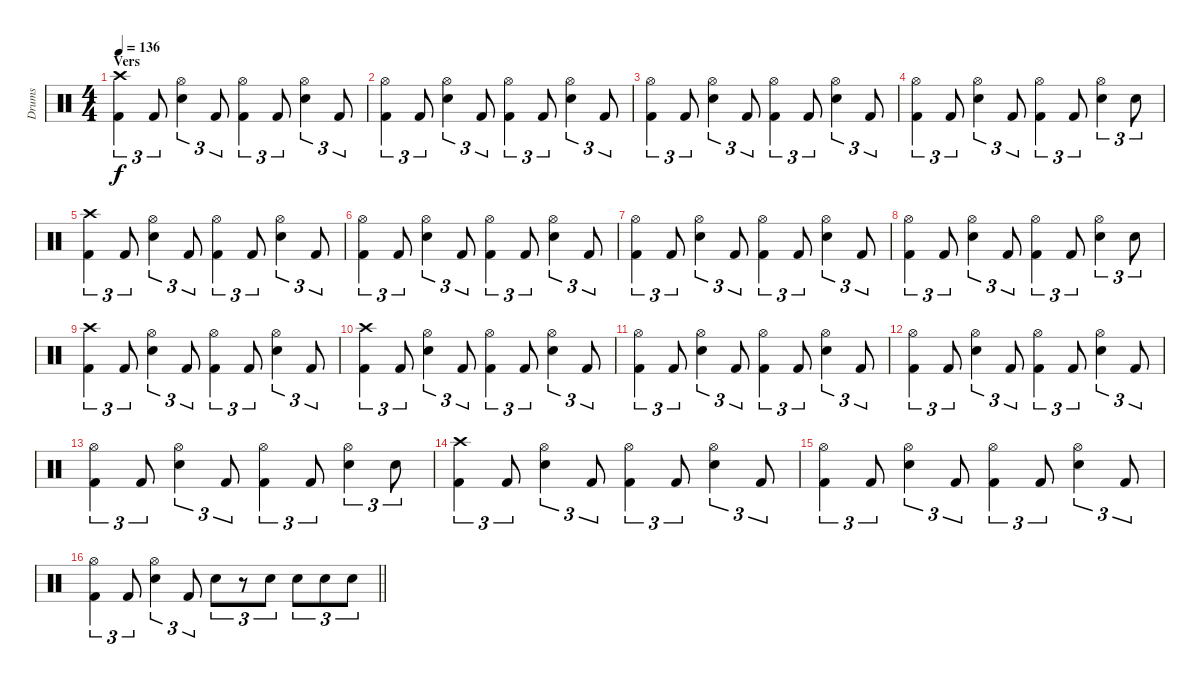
\track ("Drums" "Drums") {instrument percussion}
\staff {score}
\articulation defaults
\ts (4 4)
\section ("" "Vers")
\tempo 136
\clef neutral
\ks c
("Crash high (hit)" "Kick (hit) 2").4{tu (3 2) dy f} "Kick (hit) 2".8{tu (3 2)} ("Hi-Hat (open)" "Electric Snare (hit)").4{tu (3 2)} "Kick (hit) 2".8{tu (3 2)} ("Hi-Hat (open)" "Kick (hit) 2").4{tu (3 2)} "Kick (hit) 2".8{tu (3 2)} ("Hi-Hat (open)" "Electric Snare (hit)").4{tu (3 2)} "Kick (hit) 2".8{tu (3 2)} |
("Hi-Hat (open)" "Kick (hit) 2").4{tu (3 2)} "Kick (hit) 2".8{tu (3 2)} ("Hi-Hat (open)" "Electric Snare (hit)").4{tu (3 2)} "Kick (hit) 2".8{tu (3 2)} ("Hi-Hat (open)" "Kick (hit) 2").4{tu (3 2)} "Kick (hit) 2".8{tu (3 2)} ("Hi-Hat (open)" "Electric Snare (hit)").4{tu (3 2)} "Kick (hit) 2".8{tu (3 2)} |
("Hi-Hat (open)" "Kick (hit) 2").4{tu (3 2)} "Kick (hit) 2".8{tu (3 2)} ("Hi-Hat (open)" "Electric Snare (hit)").4{tu (3 2)} "Kick (hit) 2".8{tu (3 2)} ("Hi-Hat (open)" "Kick (hit) 2").4{tu (3 2)} "Kick (hit) 2".8{tu (3 2)} ("Hi-Hat (open)" "Electric Snare (hit)").4{tu (3 2)} "Kick (hit) 2".8{tu (3 2)} |
("Hi-Hat (open)" "Kick (hit) 2").4{tu (3 2)} "Kick (hit) 2".8{tu (3 2)} ("Hi-Hat (open)" "Electric Snare (hit)").4{tu (3 2)} "Kick (hit) 2".8{tu (3 2)} ("Hi-Hat (open)" "Kick (hit) 2").4{tu (3 2)} "Kick (hit) 2".8{tu (3 2)} ("Hi-Hat (open)" "Electric Snare (hit)").4{tu (3 2)} "Electric Snare (hit)".8{tu (3 2)} |
("Crash high (hit)" "Kick (hit) 2").4{tu (3 2)} "Kick (hit) 2".8{tu (3 2)} ("Hi-Hat (open)" "Electric Snare (hit)").4{tu (3 2)} "Kick (hit) 2".8{tu (3 2)} ("Hi-Hat (open)" "Kick (hit) 2").4{tu (3 2)} "Kick (hit) 2".8{tu (3 2)} ("Hi-Hat (open)" "Electric Snare (hit)").4{tu (3 2)} "Kick (hit) 2".8{tu (3 2)} |
("Hi-Hat (open)" "Kick (hit) 2").4{tu (3 2)} "Kick (hit) 2".8{tu (3 2)} ("Hi-Hat (open)" "Electric Snare (hit)").4{tu (3 2)} "Kick (hit) 2".8{tu (3 2)} ("Hi-Hat (open)" "Kick (hit) 2").4{tu (3 2)} "Kick (hit) 2".8{tu (3 2)} ("Hi-Hat (open)" "Electric Snare (hit)").4{tu (3 2)} "Kick (hit) 2".8{tu (3 2)} |
("Hi-Hat (open)" "Kick (hit) 2").4{tu (3 2)} "Kick (hit) 2".8{tu (3 2)} ("Hi-Hat (open)" "Electric Snare (hit)").4{tu (3 2)} "Kick (hit) 2".8{tu (3 2)} ("Hi-Hat (open)" "Kick (hit) 2").4{tu (3 2)} "Kick (hit) 2".8{tu (3 2)} ("Hi-Hat (open)" "Electric Snare (hit)").4{tu (3 2)} "Kick (hit) 2".8{tu (3 2)} |
("Hi-Hat (open)" "Kick (hit) 2").4{tu (3 2)} "Kick (hit) 2".8{tu (3 2)} ("Hi-Hat (open)" "Electric Snare (hit)").4{tu (3 2)} "Kick (hit) 2".8{tu (3 2)} ("Hi-Hat (open)" "Kick (hit) 2").4{tu (3 2)} "Kick (hit) 2".8{tu (3 2)} ("Hi-Hat (open)" "Electric Snare (hit)").4{tu (3 2)} "Electric Snare (hit)".8{tu (3 2)} |
("Crash high (hit)" "Kick (hit) 2").4{tu (3 2)} "Kick (hit) 2".8{tu (3 2)} ("Hi-Hat (open)" "Electric Snare (hit)").4{tu (3 2)} "Kick (hit) 2".8{tu (3 2)} ("Hi-Hat (open)" "Kick (hit) 2").4{tu (3 2)} "Kick (hit) 2".8{tu (3 2)} ("Hi-Hat (open)" "Electric Snare (hit)").4{tu (3 2)} "Kick (hit) 2".8{tu (3 2)} |
("Crash high (hit)" "Kick (hit) 2").4{tu (3 2)} "Kick (hit) 2".8{tu (3 2)} ("Hi-Hat (open)" "Electric Snare (hit)").4{tu (3 2)} "Kick (hit) 2".8{tu (3 2)} ("Hi-Hat (open)" "Kick (hit) 2").4{tu (3 2)} "Kick (hit) 2".8{tu (3 2)} ("Hi-Hat (open)" "Electric Snare (hit)").4{tu (3 2)} "Kick (hit) 2".8{tu (3 2)} |
("Hi-Hat (open)" "Kick (hit) 2").4{tu (3 2)} "Kick (hit) 2".8{tu (3 2)} ("Hi-Hat (open)" "Electric Snare (hit)").4{tu (3 2)} "Kick (hit) 2".8{tu (3 2)} ("Hi-Hat (open)" "Kick (hit) 2").4{tu (3 2)} "Kick (hit) 2".8{tu (3 2)} ("Hi-Hat (open)" "Electric Snare (hit)").4{tu (3 2)} "Kick (hit) 2".8{tu (3 2)} |
("Hi-Hat (open)" "Kick (hit) 2").4{tu (3 2)} "Kick (hit) 2".8{tu (3 2)} ("Hi-Hat (open)" "Electric Snare (hit)").4{tu (3 2)} "Kick (hit) 2".8{tu (3 2)} ("Hi-Hat (open)" "Kick (hit) 2").4{tu (3 2)} "Kick (hit) 2".8{tu (3 2)} ("Hi-Hat (open)" "Electric Snare (hit)").4{tu (3 2)} "Kick (hit) 2".8{tu (3 2)} |
("Hi-Hat (open)" "Kick (hit) 2").4{tu (3 2)} "Kick (hit) 2".8{tu (3 2)} ("Hi-Hat (open)" "Electric Snare (hit)").4{tu (3 2)} "Kick (hit) 2".8{tu (3 2)} ("Hi-Hat (open)" "Kick (hit) 2").4{tu (3 2)} "Kick (hit) 2".8{tu (3 2)} ("Hi-Hat (open)" "Electric Snare (hit)").4{tu (3 2)} "Electric Snare (hit)".8{tu (3 2)} |
("Crash high (hit)" "Kick (hit) 2").4{tu (3 2)} "Kick (hit) 2".8{tu (3 2)} ("Hi-Hat (open)" "Electric Snare (hit)").4{tu (3 2)} "Kick (hit) 2".8{tu (3 2)} ("Hi-Hat (open)" "Kick (hit) 2").4{tu (3 2)} "Kick (hit) 2".8{tu (3 2)} ("Hi-Hat (open)" "Electric Snare (hit)").4{tu (3 2)} "Kick (hit) 2".8{tu (3 2)} |
("Hi-Hat (open)" "Kick (hit) 2").4{tu (3 2)} "Kick (hit) 2".8{tu (3 2)} ("Hi-Hat (open)" "Electric Snare (hit)").4{tu (3 2)} "Kick (hit) 2".8{tu (3 2)} ("Hi-Hat (open)" "Kick (hit) 2").4{tu (3 2)} "Kick (hit) 2".8{tu (3 2)} ("Hi-Hat (open)" "Electric Snare (hit)").4{tu (3 2)} "Kick (hit) 2".8{tu (3 2)} |
\barLineRight lightlight
("Hi-Hat (open)" "Kick (hit) 2").4{tu (3 2)} "Kick (hit) 2".8{tu (3 2)} ("Hi-Hat (open)" "Electric Snare (hit)").4{tu (3 2)} "Kick (hit) 2".8{tu (3 2)} "Electric Snare (hit)".8{tu (3 2)} r.8{tu (3 2)} "Electric Snare (hit)".8{tu (3 2)} "Electric Snare (hit)".8{tu (3 2)} "Electric Snare (hit)".8{tu (3 2)} "Electric Snare (hit)".8{tu (3 2)}
